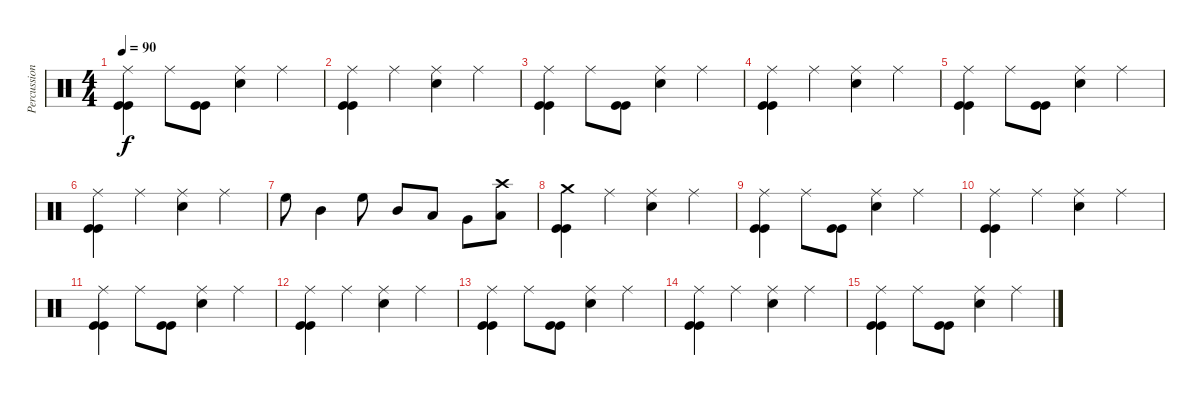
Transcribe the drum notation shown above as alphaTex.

\track ("Percussions" "Percussion") {instrument percussion}
\staff {score}
\articulation defaults
\ts (4 4)
\tempo 90
\clef neutral
\ks c
("Ride (middle)" "Kick (hit)" "Kick (hit)").4{dy f} "Ride (middle)".8 ("Kick (hit)" "Kick (hit)").8 ("Ride (middle)" "Electric Snare (hit)").4 "Ride (middle)".4 |
("Ride (middle)" "Kick (hit)" "Kick (hit)").4 "Ride (middle)".4 ("Ride (middle)" "Electric Snare (hit)").4 "Ride (middle)".4 |
("Ride (middle)" "Kick (hit)" "Kick (hit)").4 "Ride (middle)".8 ("Kick (hit)" "Kick (hit)").8 ("Ride (middle)" "Electric Snare (hit)").4 "Ride (middle)".4 |
("Ride (middle)" "Kick (hit)" "Kick (hit)").4 "Ride (middle)".4 ("Ride (middle)" "Electric Snare (hit)").4 "Ride (middle)".4 |
("Ride (middle)" "Kick (hit)" "Kick (hit)").4 "Ride (middle)".8 ("Kick (hit)" "Kick (hit)").8 ("Ride (middle)" "Electric Snare (hit)").4 "Ride (middle)".4 |
("Ride (middle)" "Kick (hit)" "Kick (hit)").4 "Ride (middle)".4 ("Ride (middle)" "Electric Snare (hit)").4 "Ride (middle)".4 |
"High Floor Tom (hit)".8 "Mid Tom (hit)".4 "High Floor Tom (hit)".8 "Mid Tom (hit)".8 "Low Tom (hit)".8 "Very Low Tom (hit)".8 ("Crash high (hit)" "Low Floor Tom (hit)").8 |
("Crash medium (hit)" "Kick (hit)" "Kick (hit)").4{volume 8} "Ride (middle)".4 ("Ride (middle)" "Electric Snare (hit)").4 "Ride (middle)".4 |
("Ride (middle)" "Kick (hit)" "Kick (hit)").4 "Ride (middle)".8 ("Kick (hit)" "Kick (hit)").8 ("Ride (middle)" "Electric Snare (hit)").4 "Ride (middle)".4 |
("Ride (middle)" "Kick (hit)" "Kick (hit)").4 "Ride (middle)".4 ("Ride (middle)" "Electric Snare (hit)").4 "Ride (middle)".4 |
("Ride (middle)" "Kick (hit)" "Kick (hit)").4 "Ride (middle)".8 ("Kick (hit)" "Kick (hit)").8 ("Ride (middle)" "Electric Snare (hit)").4 "Ride (middle)".4 |
("Ride (middle)" "Kick (hit)" "Kick (hit)").4{volume 0} "Ride (middle)".4 ("Ride (middle)" "Electric Snare (hit)").4 "Ride (middle)".4 |
("Ride (middle)" "Kick (hit)" "Kick (hit)").4 "Ride (middle)".8 ("Kick (hit)" "Kick (hit)").8 ("Ride (middle)" "Electric Snare (hit)").4 "Ride (middle)".4 |
("Ride (middle)" "Kick (hit)" "Kick (hit)").4 "Ride (middle)".4 ("Ride (middle)" "Electric Snare (hit)").4 "Ride (middle)".4 |
("Ride (middle)" "Kick (hit)" "Kick (hit)").4 "Ride (middle)".8 ("Kick (hit)" "Kick (hit)").8 ("Ride (middle)" "Electric Snare (hit)").4 "Ride (middle)".4
